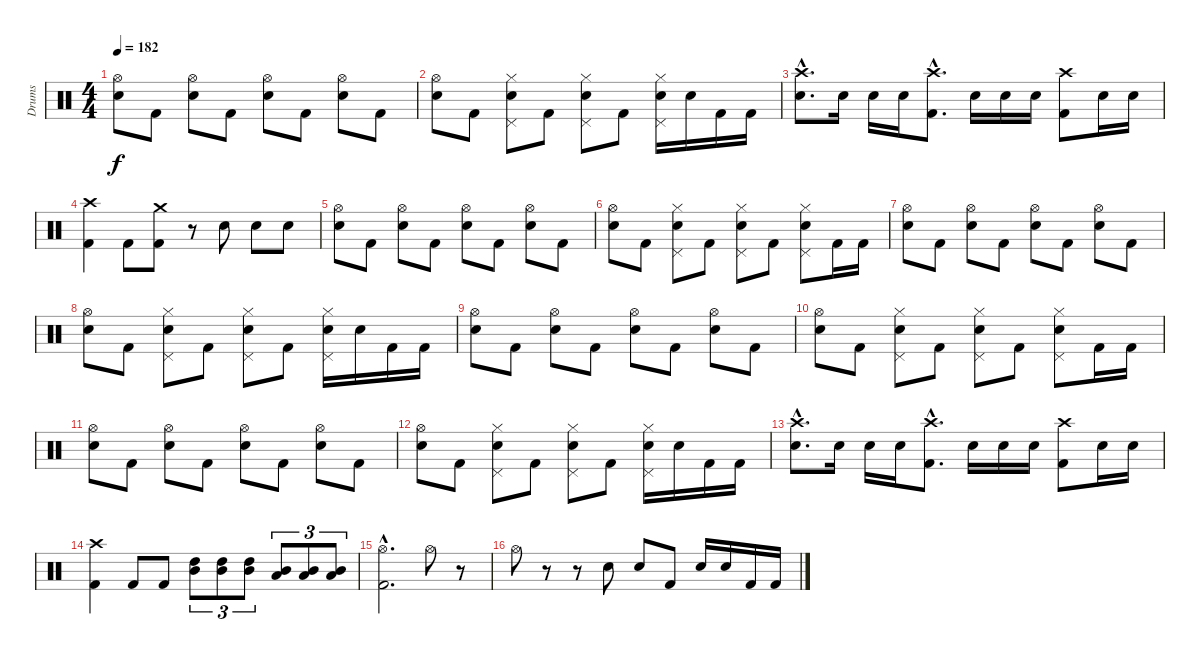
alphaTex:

\track ("Drums" "Drums") {instrument percussion}
\staff {score}
\articulation defaults
\ts (4 4)
\tempo 182
\clef neutral
\ks c
("Hi-Hat (open)" "Snare (hit) 2").8{dy f} "Kick (hit) 2".8 ("Hi-Hat (open)" "Snare (hit) 2").8 "Kick (hit) 2".8 ("Hi-Hat (open)" "Snare (hit) 2").8 "Kick (hit) 2".8 ("Hi-Hat (open)" "Snare (hit) 2").8 "Kick (hit) 2".8 |
("Hi-Hat (open)" "Snare (hit) 2").8 "Kick (hit) 2".8 ("Pedal Hi-Hat (hit)" "Hi-Hat (closed)" "Snare (hit) 2").8 "Kick (hit) 2".8 ("Pedal Hi-Hat (hit)" "Hi-Hat (closed)" "Snare (hit) 2").8 "Kick (hit) 2".8 ("Pedal Hi-Hat (hit)" "Hi-Hat (closed)" "Snare (hit) 2").16 "Snare (hit) 2".16 "Kick (hit) 2".16 "Kick (hit) 2".16 |
("Crash high (hit)"{hac} "Snare (hit) 2"{hac}).8{d} "Snare (hit) 2".16 "Snare (hit) 2".16 "Snare (hit) 2".16 ("Crash high (hit)"{hac} "Kick (hit) 2"{hac}).8{d} "Snare (hit) 2".16 "Snare (hit) 2".16 "Snare (hit) 2".16 ("Crash high (hit)" "Kick (hit) 2").8 "Snare (hit) 2".16 "Snare (hit) 2".16 |
("Crash high (hit)" "Kick (hit) 2").4 "Kick (hit) 2".8 ("Crash medium (hit)" "Kick (hit) 2").8 r.8 "Electric Snare (hit)".8 "Electric Snare (hit)".8 "Electric Snare (hit)".8 |
("Hi-Hat (open)" "Snare (hit) 2").8 "Kick (hit) 2".8 ("Hi-Hat (open)" "Snare (hit) 2").8 "Kick (hit) 2".8 ("Hi-Hat (open)" "Snare (hit) 2").8 "Kick (hit) 2".8 ("Hi-Hat (open)" "Snare (hit) 2").8 "Kick (hit) 2".8 |
("Hi-Hat (open)" "Snare (hit) 2").8 "Kick (hit) 2".8 ("Pedal Hi-Hat (hit)" "Hi-Hat (closed)" "Snare (hit) 2").8 "Kick (hit) 2".8 ("Pedal Hi-Hat (hit)" "Hi-Hat (closed)" "Snare (hit) 2").8 "Kick (hit) 2".8 ("Pedal Hi-Hat (hit)" "Hi-Hat (closed)" "Snare (hit) 2").8 "Kick (hit) 2".16 "Kick (hit) 2".16 |
("Hi-Hat (open)" "Snare (hit) 2").8 "Kick (hit) 2".8 ("Hi-Hat (open)" "Snare (hit) 2").8 "Kick (hit) 2".8 ("Hi-Hat (open)" "Snare (hit) 2").8 "Kick (hit) 2".8 ("Hi-Hat (open)" "Snare (hit) 2").8 "Kick (hit) 2".8 |
("Hi-Hat (open)" "Snare (hit) 2").8 "Kick (hit) 2".8 ("Pedal Hi-Hat (hit)" "Hi-Hat (closed)" "Snare (hit) 2").8 "Kick (hit) 2".8 ("Pedal Hi-Hat (hit)" "Hi-Hat (closed)" "Snare (hit) 2").8 "Kick (hit) 2".8 ("Pedal Hi-Hat (hit)" "Hi-Hat (closed)" "Snare (hit) 2").16 "Snare (hit) 2".16 "Kick (hit) 2".16 "Kick (hit) 2".16 |
("Hi-Hat (open)" "Snare (hit) 2").8 "Kick (hit) 2".8 ("Hi-Hat (open)" "Snare (hit) 2").8 "Kick (hit) 2".8 ("Hi-Hat (open)" "Snare (hit) 2").8 "Kick (hit) 2".8 ("Hi-Hat (open)" "Snare (hit) 2").8 "Kick (hit) 2".8 |
("Hi-Hat (open)" "Snare (hit) 2").8 "Kick (hit) 2".8 ("Pedal Hi-Hat (hit)" "Hi-Hat (closed)" "Snare (hit) 2").8 "Kick (hit) 2".8 ("Pedal Hi-Hat (hit)" "Hi-Hat (closed)" "Snare (hit) 2").8 "Kick (hit) 2".8 ("Pedal Hi-Hat (hit)" "Hi-Hat (closed)" "Snare (hit) 2").8 "Kick (hit) 2".16 "Kick (hit) 2".16 |
("Hi-Hat (open)" "Snare (hit) 2").8 "Kick (hit) 2".8 ("Hi-Hat (open)" "Snare (hit) 2").8 "Kick (hit) 2".8 ("Hi-Hat (open)" "Snare (hit) 2").8 "Kick (hit) 2".8 ("Hi-Hat (open)" "Snare (hit) 2").8 "Kick (hit) 2".8 |
("Hi-Hat (open)" "Snare (hit) 2").8 "Kick (hit) 2".8 ("Pedal Hi-Hat (hit)" "Hi-Hat (closed)" "Snare (hit) 2").8 "Kick (hit) 2".8 ("Pedal Hi-Hat (hit)" "Hi-Hat (closed)" "Snare (hit) 2").8 "Kick (hit) 2".8 ("Pedal Hi-Hat (hit)" "Hi-Hat (closed)" "Snare (hit) 2").16 "Snare (hit) 2".16 "Kick (hit) 2".16 "Kick (hit) 2".16 |
("Crash high (hit)"{hac} "Snare (hit) 2"{hac}).8{d} "Snare (hit) 2".16 "Snare (hit) 2".16 "Snare (hit) 2".16 ("Crash high (hit)"{hac} "Kick (hit) 2"{hac}).8{d} "Snare (hit) 2".16 "Snare (hit) 2".16 "Snare (hit) 2".16 ("Crash high (hit)" "Kick (hit) 2").8 "Snare (hit) 2".16 "Snare (hit) 2".16 |
("Crash high (hit)" "Kick (hit) 2").4 "Kick (hit) 2".8 "Kick (hit) 2".8 ("Mid Tom (hit)" "High Tom (hit)").8{tu (3 2)} ("Mid Tom (hit)" "High Tom (hit)").8{tu (3 2)} ("Mid Tom (hit)" "High Tom (hit)").8{tu (3 2)} ("Low Tom (hit)" "Mid Tom (hit)").8{tu (3 2)} ("Low Tom (hit)" "Mid Tom (hit)").8{tu (3 2)} ("Low Tom (hit)" "Mid Tom (hit)").8{tu (3 2)} |
("Hi-Hat (open)"{hac} "Kick (hit) 2"{hac}).2{d} "Hi-Hat (open)".8 r.8 |
"Hi-Hat (open)".8 r.8 r.8 "Snare (hit) 2".8 "Snare (hit) 2".8 "Kick (hit) 2".8 "Snare (hit) 2".16 "Snare (hit) 2".16 "Kick (hit) 2".16 "Kick (hit) 2".16
